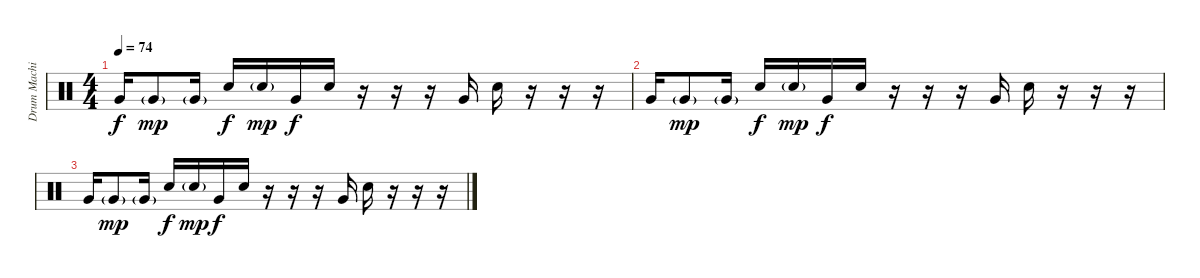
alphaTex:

\track ("Drum Machine" "Drum Machi") {instrument percussion}
\staff {score}
\articulation defaults
\ts (4 4)
\tempo 74
\clef neutral
\ks c "Very Low Tom (hit)".16{dy f volume 7} "Very Low Tom (hit)"{g}.8{dy mp} "Very Low Tom (hit)"{g}.16 "Electric Snare (hit)".16{dy f} "Electric Snare (hit)"{g}.16{dy mp} "Very Low Tom (hit)".16{dy f} "Electric Snare (hit)".16
r.16 r.16 r.16 "Very Low Tom (hit)".16 "Electric Snare (hit)".16 r.16 r.16 r.16 |
"Very Low Tom (hit)".16{volume 5} "Very Low Tom (hit)"{g}.8{dy mp} "Very Low Tom (hit)"{g}.16 "Electric Snare (hit)".16{dy f} "Electric Snare (hit)"{g}.16{dy mp} "Very Low Tom (hit)".16{dy f} "Electric Snare (hit)".16 r.16 r.16 r.16 "Very Low Tom (hit)".16 "Electric Snare (hit)".16 r.16 r.16 r.16 |
"Very Low Tom (hit)".16{volume 0} "Very Low Tom (hit)"{g}.8{dy mp} "Very Low Tom (hit)"{g}.16 "Electric Snare (hit)".16{dy f} "Electric Snare (hit)"{g}.16{dy mp} "Very Low Tom (hit)".16{dy f} "Electric Snare (hit)".16 r.16 r.16 r.16 "Very Low Tom (hit)".16 "Electric Snare (hit)".16 r.16 r.16 r.16
